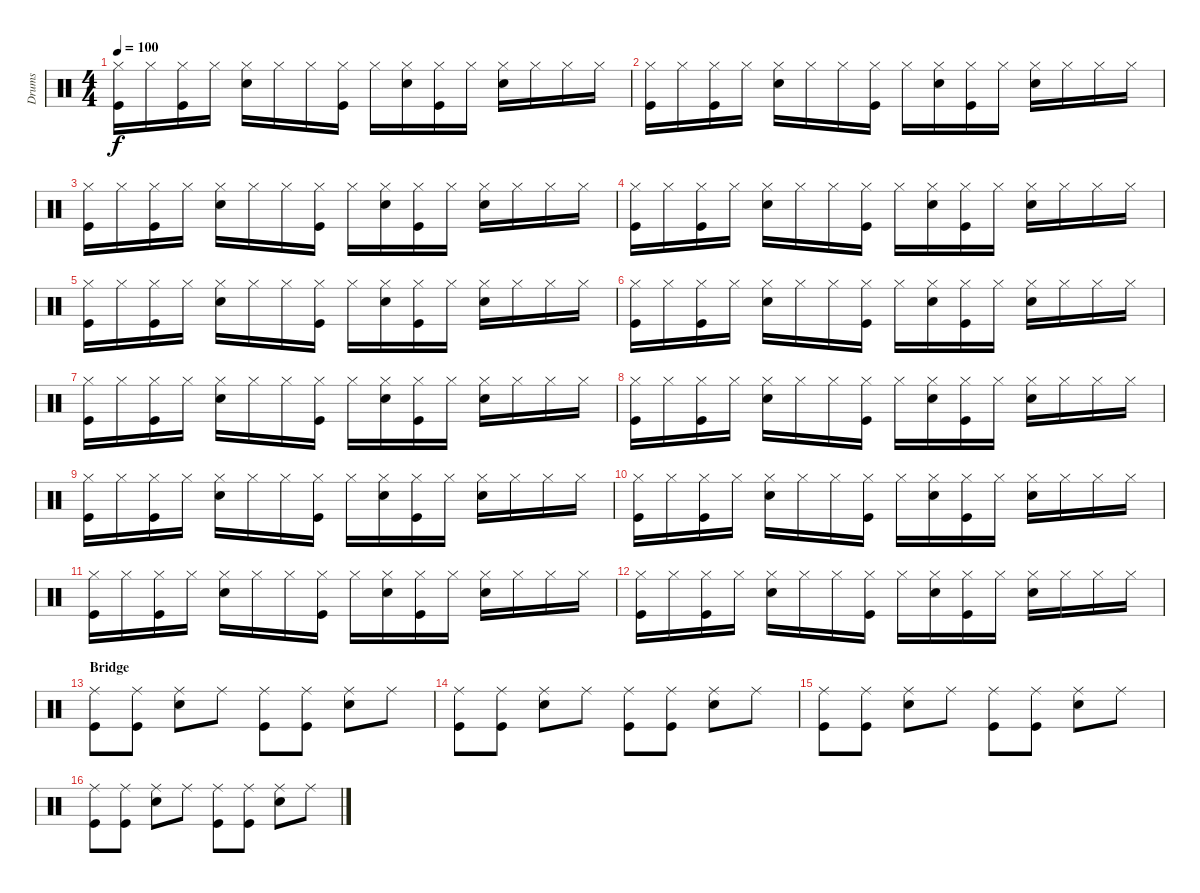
\track ("Drums" "Drums") {instrument percussion}
\staff {score}
\articulation defaults
\ts (4 4)
\tempo 100
\clef neutral
\ks c
("Hi-Hat (closed)" "Kick (hit)").16{dy f} "Hi-Hat (closed)"{x}.16 ("Hi-Hat (closed)" "Kick (hit)").16 "Hi-Hat (closed)"{x}.16 ("Hi-Hat (closed)" "Electric Snare (hit)").16 "Hi-Hat (closed)"{x}.16 "Hi-Hat (closed)".16 ("Hi-Hat (closed)"{x} "Kick (hit)").16 "Hi-Hat (closed)".16 ("Hi-Hat (closed)"{x} "Electric Snare (hit)").16 ("Hi-Hat (closed)" "Kick (hit)").16 "Hi-Hat (closed)"{x}.16 ("Hi-Hat (closed)" "Electric Snare (hit)").16 "Hi-Hat (closed)"{x}.16 "Hi-Hat (closed)".16 "Hi-Hat (closed)"{x}.16 |
("Hi-Hat (closed)" "Kick (hit)").16 "Hi-Hat (closed)"{x}.16 ("Hi-Hat (closed)" "Kick (hit)").16 "Hi-Hat (closed)"{x}.16 ("Hi-Hat (closed)" "Electric Snare (hit)").16 "Hi-Hat (closed)"{x}.16 "Hi-Hat (closed)".16 ("Hi-Hat (closed)"{x} "Kick (hit)").16 "Hi-Hat (closed)".16 ("Hi-Hat (closed)"{x} "Electric Snare (hit)").16 ("Hi-Hat (closed)" "Kick (hit)").16 "Hi-Hat (closed)"{x}.16 ("Hi-Hat (closed)" "Electric Snare (hit)").16 "Hi-Hat (closed)"{x}.16 "Hi-Hat (closed)".16 "Hi-Hat (closed)"{x}.16 |
("Hi-Hat (closed)" "Kick (hit)").16 "Hi-Hat (closed)"{x}.16 ("Hi-Hat (closed)" "Kick (hit)").16 "Hi-Hat (closed)"{x}.16 ("Hi-Hat (closed)" "Electric Snare (hit)").16 "Hi-Hat (closed)"{x}.16 "Hi-Hat (closed)".16 ("Hi-Hat (closed)"{x} "Kick (hit)").16 "Hi-Hat (closed)".16 ("Hi-Hat (closed)"{x} "Electric Snare (hit)").16 ("Hi-Hat (closed)" "Kick (hit)").16 "Hi-Hat (closed)"{x}.16 ("Hi-Hat (closed)" "Electric Snare (hit)").16 "Hi-Hat (closed)"{x}.16 "Hi-Hat (closed)".16 "Hi-Hat (closed)"{x}.16 |
("Hi-Hat (closed)" "Kick (hit)").16 "Hi-Hat (closed)"{x}.16 ("Hi-Hat (closed)" "Kick (hit)").16 "Hi-Hat (closed)"{x}.16 ("Hi-Hat (closed)" "Electric Snare (hit)").16 "Hi-Hat (closed)"{x}.16 "Hi-Hat (closed)".16 ("Hi-Hat (closed)"{x} "Kick (hit)").16 "Hi-Hat (closed)".16 ("Hi-Hat (closed)"{x} "Electric Snare (hit)").16 ("Hi-Hat (closed)" "Kick (hit)").16 "Hi-Hat (closed)"{x}.16 ("Hi-Hat (closed)" "Electric Snare (hit)").16 "Hi-Hat (closed)"{x}.16 "Hi-Hat (closed)".16 "Hi-Hat (closed)"{x}.16 |
("Hi-Hat (closed)" "Kick (hit)").16 "Hi-Hat (closed)"{x}.16 ("Hi-Hat (closed)" "Kick (hit)").16 "Hi-Hat (closed)"{x}.16 ("Hi-Hat (closed)" "Electric Snare (hit)").16 "Hi-Hat (closed)"{x}.16 "Hi-Hat (closed)".16 ("Hi-Hat (closed)"{x} "Kick (hit)").16 "Hi-Hat (closed)".16 ("Hi-Hat (closed)"{x} "Electric Snare (hit)").16 ("Hi-Hat (closed)" "Kick (hit)").16 "Hi-Hat (closed)"{x}.16 ("Hi-Hat (closed)" "Electric Snare (hit)").16 "Hi-Hat (closed)"{x}.16 "Hi-Hat (closed)".16 "Hi-Hat (closed)"{x}.16 |
("Hi-Hat (closed)" "Kick (hit)").16 "Hi-Hat (closed)"{x}.16 ("Hi-Hat (closed)" "Kick (hit)").16 "Hi-Hat (closed)"{x}.16 ("Hi-Hat (closed)" "Electric Snare (hit)").16 "Hi-Hat (closed)"{x}.16 "Hi-Hat (closed)".16 ("Hi-Hat (closed)"{x} "Kick (hit)").16 "Hi-Hat (closed)".16 ("Hi-Hat (closed)"{x} "Electric Snare (hit)").16 ("Hi-Hat (closed)" "Kick (hit)").16 "Hi-Hat (closed)"{x}.16 ("Hi-Hat (closed)" "Electric Snare (hit)").16 "Hi-Hat (closed)"{x}.16 "Hi-Hat (closed)".16 "Hi-Hat (closed)"{x}.16 |
("Hi-Hat (closed)" "Kick (hit)").16 "Hi-Hat (closed)"{x}.16 ("Hi-Hat (closed)" "Kick (hit)").16 "Hi-Hat (closed)"{x}.16 ("Hi-Hat (closed)" "Electric Snare (hit)").16 "Hi-Hat (closed)"{x}.16 "Hi-Hat (closed)".16 ("Hi-Hat (closed)"{x} "Kick (hit)").16 "Hi-Hat (closed)".16 ("Hi-Hat (closed)"{x} "Electric Snare (hit)").16 ("Hi-Hat (closed)" "Kick (hit)").16 "Hi-Hat (closed)"{x}.16 ("Hi-Hat (closed)" "Electric Snare (hit)").16 "Hi-Hat (closed)"{x}.16 "Hi-Hat (closed)".16 "Hi-Hat (closed)"{x}.16 |
("Hi-Hat (closed)" "Kick (hit)").16 "Hi-Hat (closed)"{x}.16 ("Hi-Hat (closed)" "Kick (hit)").16 "Hi-Hat (closed)"{x}.16 ("Hi-Hat (closed)" "Electric Snare (hit)").16 "Hi-Hat (closed)"{x}.16 "Hi-Hat (closed)".16 ("Hi-Hat (closed)"{x} "Kick (hit)").16 "Hi-Hat (closed)".16 ("Hi-Hat (closed)"{x} "Electric Snare (hit)").16 ("Hi-Hat (closed)" "Kick (hit)").16 "Hi-Hat (closed)"{x}.16 ("Hi-Hat (closed)" "Electric Snare (hit)").16 "Hi-Hat (closed)"{x}.16 "Hi-Hat (closed)".16 "Hi-Hat (closed)"{x}.16 |
("Hi-Hat (closed)" "Kick (hit)").16 "Hi-Hat (closed)"{x}.16 ("Hi-Hat (closed)" "Kick (hit)").16 "Hi-Hat (closed)"{x}.16 ("Hi-Hat (closed)" "Electric Snare (hit)").16 "Hi-Hat (closed)"{x}.16 "Hi-Hat (closed)".16 ("Hi-Hat (closed)"{x} "Kick (hit)").16 "Hi-Hat (closed)".16 ("Hi-Hat (closed)"{x} "Electric Snare (hit)").16 ("Hi-Hat (closed)" "Kick (hit)").16 "Hi-Hat (closed)"{x}.16 ("Hi-Hat (closed)" "Electric Snare (hit)").16 "Hi-Hat (closed)"{x}.16 "Hi-Hat (closed)".16 "Hi-Hat (closed)"{x}.16 |
("Hi-Hat (closed)" "Kick (hit)").16 "Hi-Hat (closed)"{x}.16 ("Hi-Hat (closed)" "Kick (hit)").16 "Hi-Hat (closed)"{x}.16 ("Hi-Hat (closed)" "Electric Snare (hit)").16 "Hi-Hat (closed)"{x}.16 "Hi-Hat (closed)".16 ("Hi-Hat (closed)"{x} "Kick (hit)").16 "Hi-Hat (closed)".16 ("Hi-Hat (closed)"{x} "Electric Snare (hit)").16 ("Hi-Hat (closed)" "Kick (hit)").16 "Hi-Hat (closed)"{x}.16 ("Hi-Hat (closed)" "Electric Snare (hit)").16 "Hi-Hat (closed)"{x}.16 "Hi-Hat (closed)".16 "Hi-Hat (closed)"{x}.16 |
("Hi-Hat (closed)" "Kick (hit)").16 "Hi-Hat (closed)"{x}.16 ("Hi-Hat (closed)" "Kick (hit)").16 "Hi-Hat (closed)"{x}.16 ("Hi-Hat (closed)" "Electric Snare (hit)").16 "Hi-Hat (closed)"{x}.16 "Hi-Hat (closed)".16 ("Hi-Hat (closed)"{x} "Kick (hit)").16 "Hi-Hat (closed)".16 ("Hi-Hat (closed)"{x} "Electric Snare (hit)").16 ("Hi-Hat (closed)" "Kick (hit)").16 "Hi-Hat (closed)"{x}.16 ("Hi-Hat (closed)" "Electric Snare (hit)").16 "Hi-Hat (closed)"{x}.16 "Hi-Hat (closed)".16 "Hi-Hat (closed)"{x}.16 |
("Hi-Hat (closed)" "Kick (hit)").16 "Hi-Hat (closed)"{x}.16 ("Hi-Hat (closed)" "Kick (hit)").16 "Hi-Hat (closed)"{x}.16 ("Hi-Hat (closed)" "Electric Snare (hit)").16 "Hi-Hat (closed)"{x}.16 "Hi-Hat (closed)".16 ("Hi-Hat (closed)"{x} "Kick (hit)").16 "Hi-Hat (closed)".16 ("Hi-Hat (closed)"{x} "Electric Snare (hit)").16 ("Hi-Hat (closed)" "Kick (hit)").16 "Hi-Hat (closed)"{x}.16 ("Hi-Hat (closed)" "Electric Snare (hit)").16 "Hi-Hat (closed)"{x}.16 "Hi-Hat (closed)".16 "Hi-Hat (closed)"{x}.16 |
\section ("" "Bridge")
("Ride (middle)" "Kick (hit)").8 ("Ride (middle)" "Kick (hit)").8 ("Ride (middle)" "Electric Snare (hit)").8 "Ride (middle)".8 ("Ride (middle)" "Kick (hit)").8 ("Ride (middle)" "Kick (hit)").8 ("Ride (middle)" "Electric Snare (hit)").8 "Ride (middle)".8 |
("Ride (middle)" "Kick (hit)").8 ("Ride (middle)" "Kick (hit)").8 ("Ride (middle)" "Electric Snare (hit)").8 "Ride (middle)".8 ("Ride (middle)" "Kick (hit)").8 ("Ride (middle)" "Kick (hit)").8 ("Ride (middle)" "Electric Snare (hit)").8 "Ride (middle)".8 |
("Ride (middle)" "Kick (hit)").8 ("Ride (middle)" "Kick (hit)").8 ("Ride (middle)" "Electric Snare (hit)").8 "Ride (middle)".8 ("Ride (middle)" "Kick (hit)").8 ("Ride (middle)" "Kick (hit)").8 ("Ride (middle)" "Electric Snare (hit)").8 "Ride (middle)".8 |
("Ride (middle)" "Kick (hit)").8 ("Ride (middle)" "Kick (hit)").8 ("Ride (middle)" "Electric Snare (hit)").8 "Ride (middle)".8 ("Ride (middle)" "Kick (hit)").8 ("Ride (middle)" "Kick (hit)").8 ("Ride (middle)" "Electric Snare (hit)").8 "Ride (middle)".8
